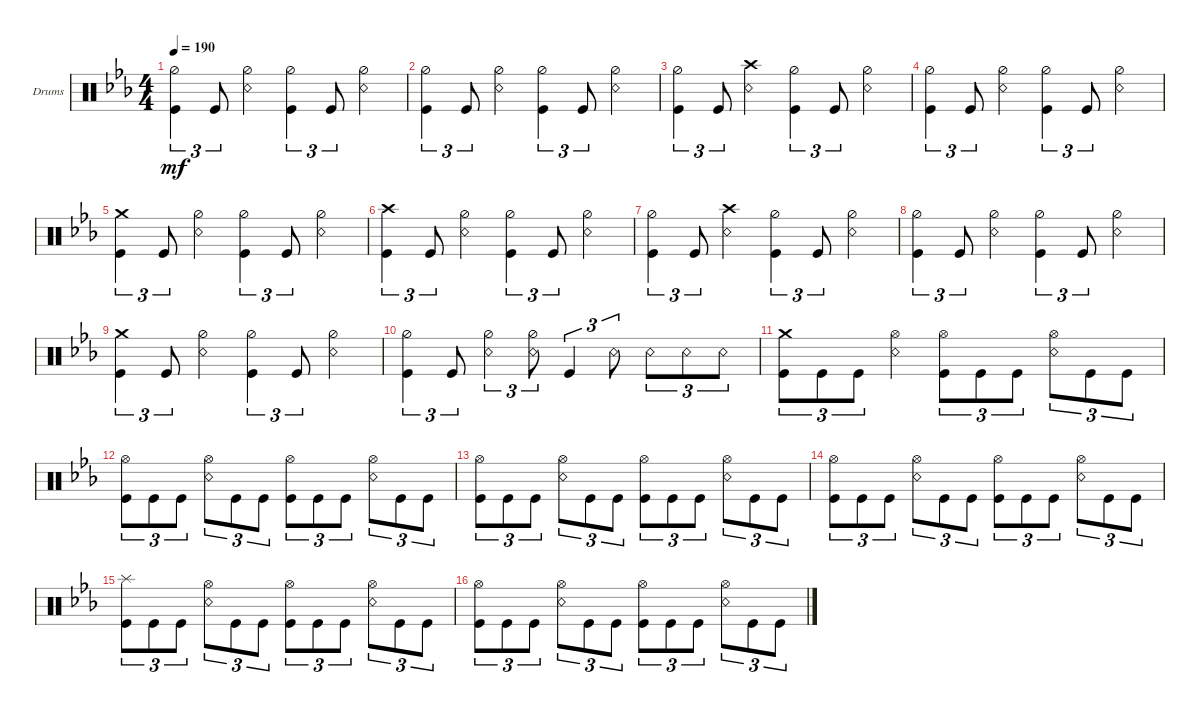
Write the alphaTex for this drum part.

\defaultSystemsLayout 4
\bracketExtendMode groupsimilarinstruments
\firstSystemTrackNameOrientation horizontal
\otherSystemsTrackNameOrientation horizontal
\track ("Drumkit" "Drums") {instrument percussion}
\staff {score}
\articulation defaults
\ts (4 4)
\tempo 190
\clef neutral
\ks cminor
("Kick (hit)" "Hi-Hat (half)").4{tu (3 2) dy mf} "Kick (hit)".8{tu (3 2)} ("Hi-Hat (half)" "Snare (rim shot)").4 ("Kick (hit)" "Hi-Hat (half)").4{tu (3 2)} "Kick (hit)".8{tu (3 2)} ("Hi-Hat (half)" "Snare (rim shot)").4 |
("Kick (hit)" "Hi-Hat (half)").4{tu (3 2)} "Kick (hit)".8{tu (3 2)} ("Hi-Hat (half)" "Snare (rim shot)").4 ("Kick (hit)" "Hi-Hat (half)").4{tu (3 2)} "Kick (hit)".8{tu (3 2)} ("Hi-Hat (half)" "Snare (rim shot)").4 |
("Kick (hit)" "Hi-Hat (half)").4{tu (3 2)} "Kick (hit)".8{tu (3 2)} ("Snare (rim shot)" "Crash high (hit)").4 ("Kick (hit)" "Hi-Hat (half)").4{tu (3 2)} "Kick (hit)".8{tu (3 2)} ("Hi-Hat (half)" "Snare (rim shot)").4 |
("Kick (hit)" "Hi-Hat (half)").4{tu (3 2)} "Kick (hit)".8{tu (3 2)} ("Hi-Hat (half)" "Snare (rim shot)").4 ("Kick (hit)" "Hi-Hat (half)").4{tu (3 2)} "Kick (hit)".8{tu (3 2)} ("Hi-Hat (half)" "Snare (rim shot)").4 |
("Kick (hit)" "Crash medium (hit)").4{tu (3 2)} "Kick (hit)".8{tu (3 2)} ("Hi-Hat (half)" "Snare (rim shot)").4 ("Kick (hit)" "Hi-Hat (half)").4{tu (3 2)} "Kick (hit)".8{tu (3 2)} ("Hi-Hat (half)" "Snare (rim shot)").4 |
("Kick (hit)" "Crash high (hit)").4{tu (3 2)} "Kick (hit)".8{tu (3 2)} ("Hi-Hat (half)" "Snare (rim shot)").4 ("Kick (hit)" "Hi-Hat (half)").4{tu (3 2)} "Kick (hit)".8{tu (3 2)} ("Hi-Hat (half)" "Snare (rim shot)").4 |
("Kick (hit)" "Hi-Hat (half)").4{tu (3 2)} "Kick (hit)".8{tu (3 2)} ("Snare (rim shot)" "Crash high (hit)").4 ("Kick (hit)" "Hi-Hat (half)").4{tu (3 2)} "Kick (hit)".8{tu (3 2)} ("Hi-Hat (half)" "Snare (rim shot)").4 |
("Kick (hit)" "Hi-Hat (half)").4{tu (3 2)} "Kick (hit)".8{tu (3 2)} ("Hi-Hat (half)" "Snare (rim shot)").4 ("Kick (hit)" "Hi-Hat (half)").4{tu (3 2)} "Kick (hit)".8{tu (3 2)} ("Hi-Hat (half)" "Snare (rim shot)").4 |
("Kick (hit)" "Crash medium (hit)").4{tu (3 2)} "Kick (hit)".8{tu (3 2)} ("Hi-Hat (half)" "Snare (rim shot)").4 ("Kick (hit)" "Hi-Hat (half)").4{tu (3 2)} "Kick (hit)".8{tu (3 2)} ("Hi-Hat (half)" "Snare (rim shot)").4 |
("Kick (hit)" "Hi-Hat (half)").4{tu (3 2)} "Kick (hit)".8{tu (3 2)} ("Hi-Hat (half)" "Snare (rim shot)").4{tu (3 2)} ("Snare (rim shot)" "Hi-Hat (half)").8{tu (3 2)} "Kick (hit)".4{tu (3 2)} "Snare (rim shot)".8{tu (3 2)} "Snare (rim shot)".8{tu (3 2)} "Snare (rim shot)".8{tu (3 2)} "Snare (rim shot)".8{tu (3 2)} |
("Kick (hit)" "Crash medium (hit)").8{tu (3 2)} "Kick (hit)".8{tu (3 2)} "Kick (hit)".8{tu (3 2)} ("Snare (rim shot)" "Hi-Hat (open)").4 ("Kick (hit)" "Hi-Hat (open)").8{tu (3 2)} "Kick (hit)".8{tu (3 2)} "Kick (hit)".8{tu (3 2)} ("Snare (rim shot)" "Hi-Hat (open)").8{tu (3 2)} "Kick (hit)".8{tu (3 2)} "Kick (hit)".8{tu (3 2)} |
("Kick (hit)" "Hi-Hat (open)").8{tu (3 2)} "Kick (hit)".8{tu (3 2)} "Kick (hit)".8{tu (3 2)} ("Snare (rim shot)" "Hi-Hat (open)").8{tu (3 2)} "Kick (hit)".8{tu (3 2)} "Kick (hit)".8{tu (3 2)} ("Kick (hit)" "Hi-Hat (open)").8{tu (3 2)} "Kick (hit)".8{tu (3 2)} "Kick (hit)".8{tu (3 2)} ("Snare (rim shot)" "Hi-Hat (open)").8{tu (3 2)} "Kick (hit)".8{tu (3 2)} "Kick (hit)".8{tu (3 2)} |
("Kick (hit)" "Hi-Hat (open)").8{tu (3 2)} "Kick (hit)".8{tu (3 2)} "Kick (hit)".8{tu (3 2)} ("Snare (rim shot)" "Hi-Hat (open)").8{tu (3 2)} "Kick (hit)".8{tu (3 2)} "Kick (hit)".8{tu (3 2)} ("Kick (hit)" "Hi-Hat (open)").8{tu (3 2)} "Kick (hit)".8{tu (3 2)} "Kick (hit)".8{tu (3 2)} ("Snare (rim shot)" "Hi-Hat (open)").8{tu (3 2)} "Kick (hit)".8{tu (3 2)} "Kick (hit)".8{tu (3 2)} |
("Kick (hit)" "Hi-Hat (open)").8{tu (3 2)} "Kick (hit)".8{tu (3 2)} "Kick (hit)".8{tu (3 2)} ("Snare (rim shot)" "Hi-Hat (open)").8{tu (3 2)} "Kick (hit)".8{tu (3 2)} "Kick (hit)".8{tu (3 2)} ("Kick (hit)" "Hi-Hat (open)").8{tu (3 2)} "Kick (hit)".8{tu (3 2)} "Kick (hit)".8{tu (3 2)} ("Snare (rim shot)" "Hi-Hat (open)").8{tu (3 2)} "Kick (hit)".8{tu (3 2)} "Kick (hit)".8{tu (3 2)} |
("Kick (hit)" "Splash (hit)").8{tu (3 2)} "Kick (hit)".8{tu (3 2)} "Kick (hit)".8{tu (3 2)} ("Snare (rim shot)" "Hi-Hat (open)").8{tu (3 2)} "Kick (hit)".8{tu (3 2)} "Kick (hit)".8{tu (3 2)} ("Kick (hit)" "Hi-Hat (open)").8{tu (3 2)} "Kick (hit)".8{tu (3 2)} "Kick (hit)".8{tu (3 2)} ("Snare (rim shot)" "Hi-Hat (open)").8{tu (3 2)} "Kick (hit)".8{tu (3 2)} "Kick (hit)".8{tu (3 2)} |
("Kick (hit)" "Hi-Hat (open)").8{tu (3 2)} "Kick (hit)".8{tu (3 2)} "Kick (hit)".8{tu (3 2)} ("Snare (rim shot)" "Hi-Hat (open)").8{tu (3 2)} "Kick (hit)".8{tu (3 2)} "Kick (hit)".8{tu (3 2)} ("Kick (hit)" "Hi-Hat (open)").8{tu (3 2)} "Kick (hit)".8{tu (3 2)} "Kick (hit)".8{tu (3 2)} ("Snare (rim shot)" "Hi-Hat (open)").8{tu (3 2)} "Kick (hit)".8{tu (3 2)} "Kick (hit)".8{tu (3 2)}
